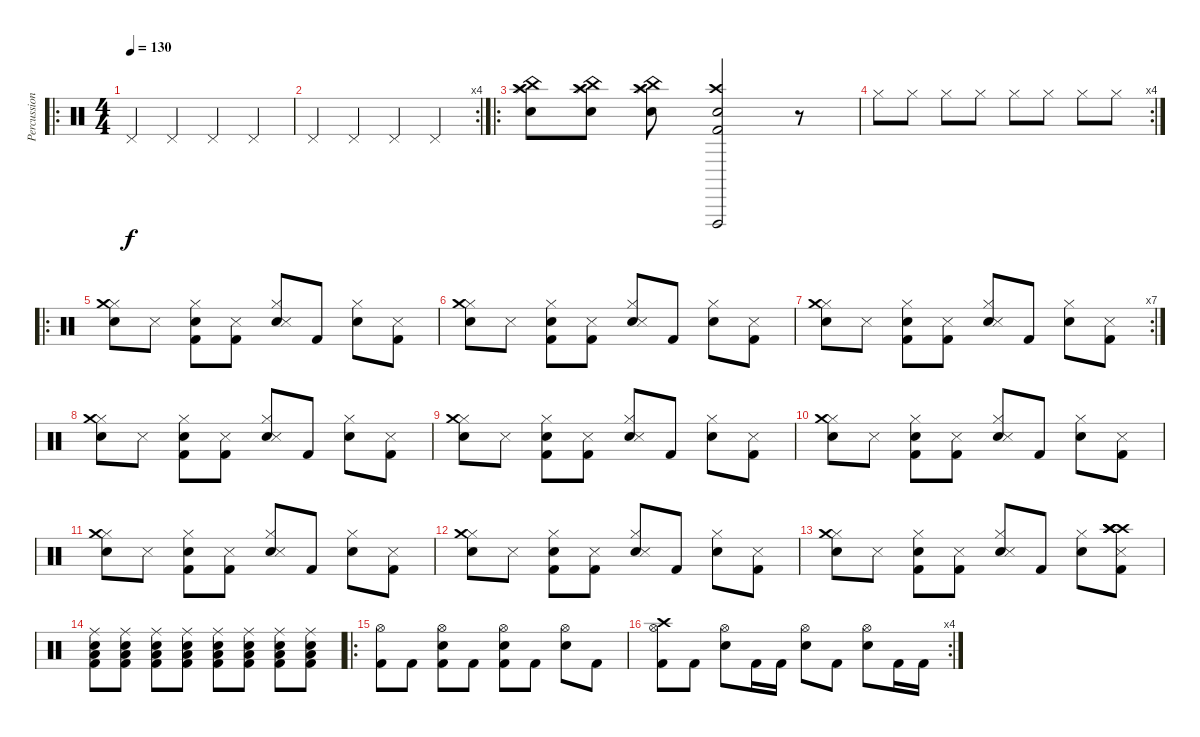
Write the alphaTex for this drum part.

\track ("Percussion" "Percussion") {instrument percussion}
\staff {score}
\articulation defaults
\ro
\ts (4 4)
\tempo 130
\clef neutral
\ks c "Pedal Hi-Hat (hit)".4{dy f} "Pedal Hi-Hat (hit)".4 "Pedal Hi-Hat (hit)".4 "Pedal Hi-Hat (hit)".4
|
\rc 4 "Pedal Hi-Hat (hit)".4 "Pedal Hi-Hat (hit)".4 "Pedal Hi-Hat (hit)".4 "Pedal Hi-Hat (hit)".4
|
\ro
("Crash high (hit)" "Snare (hit) 2" "China (hit)" "Splash (hit)").8 ("Crash high (hit)" "Snare (hit) 2" "China (hit)" "Splash (hit)").8 ("Crash high (hit)" "Snare (hit) 2" "China (hit)" "Splash (hit)").8 ("Kick (hit) 2" "Snare (hit) 2" "Vibraslap (hit)" "Crash high (hit)").2 r.8 |
\rc 4 "Hi-Hat (closed)".8 "Hi-Hat (closed)".8 "Hi-Hat (closed)".8 "Hi-Hat (closed)".8 "Hi-Hat (closed)".8 "Hi-Hat (closed)".8 "Hi-Hat (closed)".8 "Hi-Hat (closed)".8
|
\ro
("Hi-Hat (closed)" "Snare (hit) 2" "Crash medium (hit)").8 "Snare (side stick) 3".8 ("Hi-Hat (closed)" "Kick (hit) 2" "Snare (hit) 2").8 ("Kick (hit) 2" "Snare (side stick) 3").8 ("Hi-Hat (closed)" "Snare (hit) 2" "Snare (side stick) 3").8 "Kick (hit) 2".8 ("Hi-Hat (closed)" "Snare (hit) 2").8 ("Kick (hit) 2" "Snare (side stick) 3").8 |
("Hi-Hat (closed)" "Snare (hit) 2" "Crash medium (hit)").8 "Snare (side stick) 3".8 ("Hi-Hat (closed)" "Kick (hit) 2" "Snare (hit) 2").8 ("Kick (hit) 2" "Snare (side stick) 3").8 ("Hi-Hat (closed)" "Snare (hit) 2" "Snare (side stick) 3").8 "Kick (hit) 2".8 ("Hi-Hat (closed)" "Snare (hit) 2").8 ("Kick (hit) 2" "Snare (side stick) 3").8 |
\rc 7
("Hi-Hat (closed)" "Snare (hit) 2" "Crash medium (hit)").8 "Snare (side stick) 3".8 ("Hi-Hat (closed)" "Kick (hit) 2" "Snare (hit) 2").8 ("Kick (hit) 2" "Snare (side stick) 3").8 ("Hi-Hat (closed)" "Snare (hit) 2" "Snare (side stick) 3").8 "Kick (hit) 2".8 ("Hi-Hat (closed)" "Snare (hit) 2").8 ("Kick (hit) 2" "Snare (side stick) 3").8 |
("Hi-Hat (closed)" "Snare (hit) 2" "Crash medium (hit)").8 "Snare (side stick) 3".8 ("Hi-Hat (closed)" "Kick (hit) 2" "Snare (hit) 2").8 ("Kick (hit) 2" "Snare (side stick) 3").8 ("Hi-Hat (closed)" "Snare (hit) 2" "Snare (side stick) 3").8 "Kick (hit) 2".8 ("Hi-Hat (closed)" "Snare (hit) 2").8 ("Kick (hit) 2" "Snare (side stick) 3").8 |
("Hi-Hat (closed)" "Snare (hit) 2" "Crash medium (hit)").8 "Snare (side stick) 3".8 ("Hi-Hat (closed)" "Kick (hit) 2" "Snare (hit) 2").8 ("Kick (hit) 2" "Snare (side stick) 3").8 ("Hi-Hat (closed)" "Snare (hit) 2" "Snare (side stick) 3").8 "Kick (hit) 2".8 ("Hi-Hat (closed)" "Snare (hit) 2").8 ("Kick (hit) 2" "Snare (side stick) 3").8 |
("Hi-Hat (closed)" "Snare (hit) 2" "Crash medium (hit)").8 "Snare (side stick) 3".8 ("Hi-Hat (closed)" "Kick (hit) 2" "Snare (hit) 2").8 ("Kick (hit) 2" "Snare (side stick) 3").8 ("Hi-Hat (closed)" "Snare (hit) 2" "Snare (side stick) 3").8 "Kick (hit) 2".8 ("Hi-Hat (closed)" "Snare (hit) 2").8 ("Kick (hit) 2" "Snare (side stick) 3").8 |
("Hi-Hat (closed)" "Snare (hit) 2" "Crash medium (hit)").8 "Snare (side stick) 3".8 ("Hi-Hat (closed)" "Kick (hit) 2" "Snare (hit) 2").8 ("Kick (hit) 2" "Snare (side stick) 3").8 ("Hi-Hat (closed)" "Snare (hit) 2" "Snare (side stick) 3").8 "Kick (hit) 2".8 ("Hi-Hat (closed)" "Snare (hit) 2").8 ("Kick (hit) 2" "Snare (side stick) 3").8 |
("Hi-Hat (closed)" "Snare (hit) 2" "Crash medium (hit)").8 "Snare (side stick) 3".8 ("Hi-Hat (closed)" "Kick (hit) 2" "Snare (hit) 2").8 ("Kick (hit) 2" "Snare (side stick) 3").8 ("Hi-Hat (closed)" "Snare (hit) 2" "Snare (side stick) 3").8 "Kick (hit) 2".8 ("Hi-Hat (closed)" "Snare (hit) 2").8 ("Kick (hit) 2" "Snare (side stick) 3").8 |
("Hi-Hat (closed)" "Snare (hit) 2" "Crash medium (hit)").8 "Snare (side stick) 3".8 ("Hi-Hat (closed)" "Kick (hit) 2" "Snare (hit) 2").8 ("Kick (hit) 2" "Snare (side stick) 3").8 ("Hi-Hat (closed)" "Snare (hit) 2" "Snare (side stick) 3").8 "Kick (hit) 2".8 ("Hi-Hat (closed)" "Snare (hit) 2").8 ("Crash high (hit)" "Kick (hit) 2" "Snare (side stick) 3" "Crash high (hit)" "Crash high (hit)" "Crash high (hit)").8 |
("Ride (middle)" "Kick (hit) 2" "Snare (hit) 2" "Low Floor Tom (hit)").8 ("Ride (middle)" "Kick (hit) 2" "Snare (hit) 2" "Low Floor Tom (hit)").8 ("Ride (middle)" "Kick (hit) 2" "Snare (hit) 2" "Low Floor Tom (hit)").8 ("Ride (middle)" "Kick (hit) 2" "Snare (hit) 2" "Low Floor Tom (hit)").8 ("Ride (middle)" "Kick (hit) 2" "Snare (hit) 2" "Low Floor Tom (hit)").8 ("Ride (middle)" "Kick (hit) 2" "Snare (hit) 2" "Low Floor Tom (hit)").8 ("Ride (middle)" "Kick (hit) 2" "Snare (hit) 2" "Low Floor Tom (hit)").8 ("Ride (middle)" "Kick (hit) 2" "Snare (hit) 2" "Low Floor Tom (hit)").8 |
\ro
("Hi-Hat (open)" "Kick (hit) 2").8 "Kick (hit) 2".8 ("Hi-Hat (open)" "Snare (hit) 2" "Kick (hit) 2").8 "Kick (hit) 2".8 ("Hi-Hat (open)" "Snare (hit) 2" "Kick (hit) 2").8 "Kick (hit) 2".8 ("Hi-Hat (open)" "Snare (hit) 2").8 "Kick (hit) 2".8 |
\rc 4
("Hi-Hat (open)" "Kick (hit) 2" "Crash high (hit)").8 "Kick (hit) 2".8 ("Hi-Hat (open)" "Snare (hit) 2").8 "Kick (hit) 2".16 "Kick (hit) 2".16 ("Hi-Hat (open)" "Snare (hit) 2").8 "Kick (hit) 2".8 ("Hi-Hat (open)" "Snare (hit) 2").8 "Kick (hit) 2".16 "Kick (hit) 2".16
